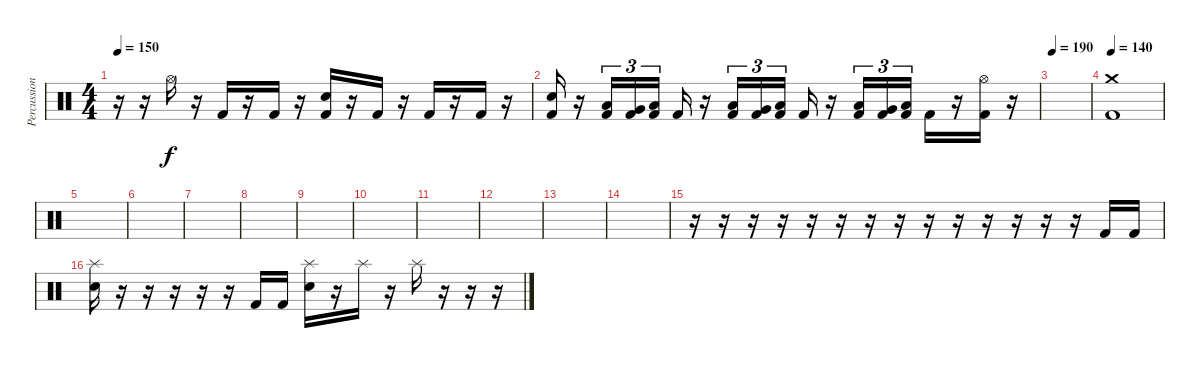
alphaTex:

\track ("Percussion" "Percussion") {instrument percussion}
\staff {score}
\articulation defaults
\ts (4 4)
\tempo 150
\clef neutral
\ks c
r.16{dy f} r.16 "Hi-Hat (open)".16 r.16 "Kick (hit) 2".16 r.16 "Kick (hit) 2".16 r.16 ("Electric Snare (hit)" "Kick (hit) 2").16 r.16 "Kick (hit) 2".16 r.16 "Kick (hit) 2".16 r.16 "Kick (hit) 2".16 r.16 |
("Electric Snare (hit)" "Kick (hit) 2").16 r.16 ("Low Tom (hit)" "Kick (hit) 2").16{tu (3 2)} ("Very Low Tom (hit)" "Kick (hit) 2").16{tu (3 2)} ("Low Floor Tom (hit)" "Kick (hit) 2").16{tu (3 2)} "Kick (hit) 2".16 r.16 ("Low Tom (hit)" "Kick (hit) 2").16{tu (3 2)} ("Very Low Tom (hit)" "Kick (hit) 2").16{tu (3 2)} ("Low Floor Tom (hit)" "Kick (hit) 2").16{tu (3 2)} "Kick (hit) 2".16 r.16 ("Low Tom (hit)" "Kick (hit) 2").16{tu (3 2)} ("Very Low Tom (hit)" "Kick (hit) 2").16{tu (3 2)} ("Low Floor Tom (hit)" "Kick (hit) 2").16{tu (3 2)} "Kick (hit) 2".16 r.16 ("Hi-Hat (open)" "Kick (hit) 2").16 r.16 |
\tempo 190
|
\tempo 140
("Crash medium (hit)" "Kick (hit) 2").1 |
|
|
|
|
|
|
|
|
|
|
r.16 r.16 r.16 r.16 r.16 r.16 r.16 r.16 r.16 r.16 r.16 r.16 r.16 r.16 "Kick (hit) 2".16 "Kick (hit) 2".16 |
("Splash (hit)" "Electric Snare (hit)").16 r.16 r.16 r.16 r.16 r.16 "Kick (hit) 2".16 "Kick (hit) 2".16 ("Splash (hit)" "Electric Snare (hit)").16 r.16 "Splash (hit)".16 r.16 "Splash (hit)".16 r.16 r.16 r.16
